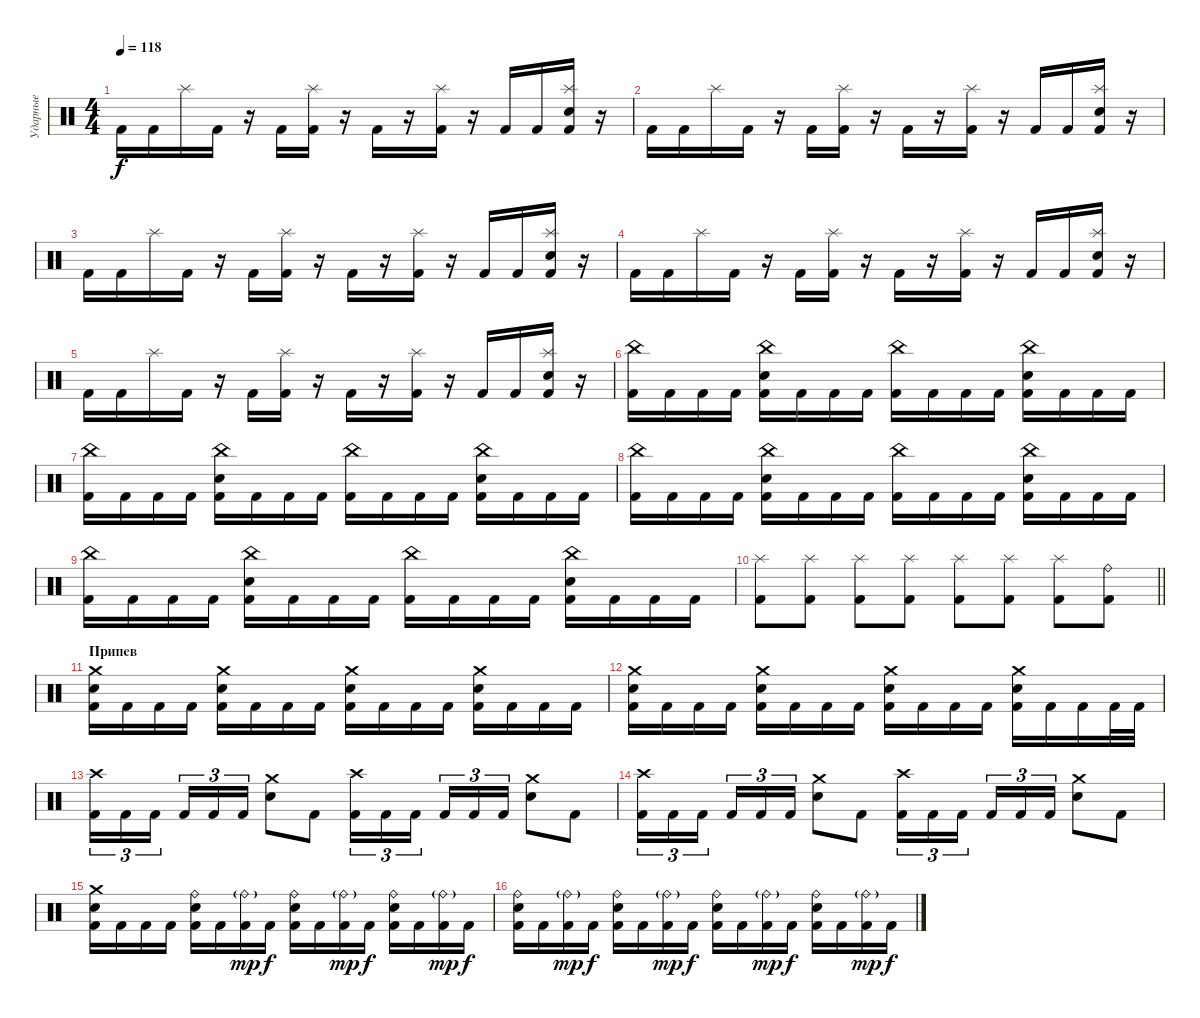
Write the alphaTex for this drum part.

\track ("Ударные" "Ударные") {instrument percussion}
\staff {score}
\articulation defaults
\ts (4 4)
\tempo 118
\clef neutral
\ks c "Kick (hit) 2".16{dy f} "Kick (hit) 2".16 "Splash (hit)".16 "Kick (hit) 2".16
r.16 "Kick (hit) 2".16 ("Splash (hit)" "Kick (hit) 2").16 r.16 "Kick (hit) 2".16 r.16 ("Splash (hit)" "Kick (hit) 2").16 r.16 "Kick (hit) 2".16 "Kick (hit) 2".16 ("Splash (hit)" "Electric Snare (hit)" "Kick (hit) 2").16 r.16 |
"Kick (hit) 2".16 "Kick (hit) 2".16 "Splash (hit)".16 "Kick (hit) 2".16 r.16 "Kick (hit) 2".16 ("Splash (hit)" "Kick (hit) 2").16 r.16 "Kick (hit) 2".16 r.16 ("Splash (hit)" "Kick (hit) 2").16 r.16 "Kick (hit) 2".16 "Kick (hit) 2".16 ("Splash (hit)" "Electric Snare (hit)" "Kick (hit) 2").16 r.16 |
"Kick (hit) 2".16 "Kick (hit) 2".16 "Splash (hit)".16 "Kick (hit) 2".16 r.16 "Kick (hit) 2".16 ("Splash (hit)" "Kick (hit) 2").16 r.16 "Kick (hit) 2".16 r.16 ("Splash (hit)" "Kick (hit) 2").16 r.16 "Kick (hit) 2".16 "Kick (hit) 2".16 ("Splash (hit)" "Electric Snare (hit)" "Kick (hit) 2").16 r.16 |
"Kick (hit) 2".16 "Kick (hit) 2".16 "Splash (hit)".16 "Kick (hit) 2".16 r.16 "Kick (hit) 2".16 ("Splash (hit)" "Kick (hit) 2").16 r.16 "Kick (hit) 2".16 r.16 ("Splash (hit)" "Kick (hit) 2").16 r.16 "Kick (hit) 2".16 "Kick (hit) 2".16 ("Splash (hit)" "Electric Snare (hit)" "Kick (hit) 2").16 r.16 |
"Kick (hit) 2".16 "Kick (hit) 2".16 "Splash (hit)".16 "Kick (hit) 2".16 r.16 "Kick (hit) 2".16 ("Splash (hit)" "Kick (hit) 2").16 r.16 "Kick (hit) 2".16 r.16 ("Splash (hit)" "Kick (hit) 2").16 r.16 "Kick (hit) 2".16 "Kick (hit) 2".16 ("Splash (hit)" "Electric Snare (hit)" "Kick (hit) 2").16 r.16 |
("China (hit)" "Kick (hit) 2").16 "Kick (hit) 2".16 "Kick (hit) 2".16 "Kick (hit) 2".16 ("China (hit)" "Electric Snare (hit)" "Kick (hit) 2").16 "Kick (hit) 2".16 "Kick (hit) 2".16 "Kick (hit) 2".16 ("China (hit)" "Kick (hit) 2").16 "Kick (hit) 2".16 "Kick (hit) 2".16 "Kick (hit) 2".16 ("China (hit)" "Electric Snare (hit)" "Kick (hit) 2").16 "Kick (hit) 2".16 "Kick (hit) 2".16 "Kick (hit) 2".16 |
("China (hit)" "Kick (hit) 2").16 "Kick (hit) 2".16 "Kick (hit) 2".16 "Kick (hit) 2".16 ("China (hit)" "Electric Snare (hit)" "Kick (hit) 2").16 "Kick (hit) 2".16 "Kick (hit) 2".16 "Kick (hit) 2".16 ("China (hit)" "Kick (hit) 2").16 "Kick (hit) 2".16 "Kick (hit) 2".16 "Kick (hit) 2".16 ("China (hit)" "Electric Snare (hit)" "Kick (hit) 2").16 "Kick (hit) 2".16 "Kick (hit) 2".16 "Kick (hit) 2".16 |
("China (hit)" "Kick (hit) 2").16 "Kick (hit) 2".16 "Kick (hit) 2".16 "Kick (hit) 2".16 ("China (hit)" "Electric Snare (hit)" "Kick (hit) 2").16 "Kick (hit) 2".16 "Kick (hit) 2".16 "Kick (hit) 2".16 ("China (hit)" "Kick (hit) 2").16 "Kick (hit) 2".16 "Kick (hit) 2".16 "Kick (hit) 2".16 ("China (hit)" "Electric Snare (hit)" "Kick (hit) 2").16 "Kick (hit) 2".16 "Kick (hit) 2".16 "Kick (hit) 2".16 |
("China (hit)" "Kick (hit) 2").16 "Kick (hit) 2".16 "Kick (hit) 2".16 "Kick (hit) 2".16 ("China (hit)" "Electric Snare (hit)" "Kick (hit) 2").16 "Kick (hit) 2".16 "Kick (hit) 2".16 "Kick (hit) 2".16 ("China (hit)" "Kick (hit) 2").16 "Kick (hit) 2".16 "Kick (hit) 2".16 "Kick (hit) 2".16 ("China (hit)" "Electric Snare (hit)" "Kick (hit) 2").16 "Kick (hit) 2".16 "Kick (hit) 2".16 "Kick (hit) 2".16 |
\barLineRight lightlight
("Splash (hit)" "Kick (hit) 2").8 ("Splash (hit)" "Kick (hit) 2").8 ("Splash (hit)" "Kick (hit) 2").8 ("Splash (hit)" "Kick (hit) 2").8 ("Splash (hit)" "Kick (hit) 2").8 ("Splash (hit)" "Kick (hit) 2").8 ("Splash (hit)" "Kick (hit) 2").8 ("Ride (bell)" "Kick (hit) 2").8 |
\section ("" "Припев")
("Crash medium (hit)" "Electric Snare (hit)" "Kick (hit) 2").16 "Kick (hit) 2".16 "Kick (hit) 2".16 "Kick (hit) 2".16 ("Crash medium (hit)" "Electric Snare (hit)" "Kick (hit) 2").16 "Kick (hit) 2".16 "Kick (hit) 2".16 "Kick (hit) 2".16 ("Crash medium (hit)" "Electric Snare (hit)" "Kick (hit) 2").16 "Kick (hit) 2".16 "Kick (hit) 2".16 "Kick (hit) 2".16 ("Crash medium (hit)" "Electric Snare (hit)" "Kick (hit) 2").16 "Kick (hit) 2".16 "Kick (hit) 2".16 "Kick (hit) 2".16 |
("Crash medium (hit)" "Electric Snare (hit)" "Kick (hit) 2").16 "Kick (hit) 2".16 "Kick (hit) 2".16 "Kick (hit) 2".16 ("Crash medium (hit)" "Electric Snare (hit)" "Kick (hit) 2").16 "Kick (hit) 2".16 "Kick (hit) 2".16 "Kick (hit) 2".16 ("Crash medium (hit)" "Electric Snare (hit)" "Kick (hit) 2").16 "Kick (hit) 2".16 "Kick (hit) 2".16 "Kick (hit) 2".16 ("Crash medium (hit)" "Electric Snare (hit)" "Kick (hit) 2").16 "Kick (hit) 2".16 "Kick (hit) 2".16 "Kick (hit) 2".32 "Kick (hit) 2".32 |
("Crash high (hit)" "Kick (hit) 2").16{tu (3 2)} "Kick (hit) 2".16{tu (3 2)} "Kick (hit) 2".16{tu (3 2)} "Kick (hit) 2".16{tu (3 2)} "Kick (hit) 2".16{tu (3 2)} "Kick (hit) 2".16{tu (3 2)} ("Crash medium (hit)" "Electric Snare (hit)").8 "Kick (hit) 2".8 ("Crash high (hit)" "Kick (hit) 2").16{tu (3 2)} "Kick (hit) 2".16{tu (3 2)} "Kick (hit) 2".16{tu (3 2)} "Kick (hit) 2".16{tu (3 2)} "Kick (hit) 2".16{tu (3 2)} "Kick (hit) 2".16{tu (3 2)} ("Crash medium (hit)" "Electric Snare (hit)").8 "Kick (hit) 2".8 |
("Crash high (hit)" "Kick (hit) 2").16{tu (3 2)} "Kick (hit) 2".16{tu (3 2)} "Kick (hit) 2".16{tu (3 2)} "Kick (hit) 2".16{tu (3 2)} "Kick (hit) 2".16{tu (3 2)} "Kick (hit) 2".16{tu (3 2)} ("Crash medium (hit)" "Electric Snare (hit)").8 "Kick (hit) 2".8 ("Crash high (hit)" "Kick (hit) 2").16{tu (3 2)} "Kick (hit) 2".16{tu (3 2)} "Kick (hit) 2".16{tu (3 2)} "Kick (hit) 2".16{tu (3 2)} "Kick (hit) 2".16{tu (3 2)} "Kick (hit) 2".16{tu (3 2)} ("Crash medium (hit)" "Electric Snare (hit)").8 "Kick (hit) 2".8 |
("Crash medium (hit)" "Electric Snare (hit)" "Kick (hit) 2").16 "Kick (hit) 2".16 "Kick (hit) 2".16 "Kick (hit) 2".16 ("Ride (bell)" "Electric Snare (hit)" "Kick (hit) 2").16 "Kick (hit) 2".16 ("Ride (bell)"{g} "Kick (hit) 2").16{dy mp} "Kick (hit) 2".16{dy f} ("Ride (bell)" "Electric Snare (hit)" "Kick (hit) 2").16 "Kick (hit) 2".16 ("Ride (bell)"{g} "Kick (hit) 2").16{dy mp} "Kick (hit) 2".16{dy f} ("Ride (bell)" "Electric Snare (hit)" "Kick (hit) 2").16 "Kick (hit) 2".16 ("Ride (bell)"{g} "Kick (hit) 2").16{dy mp} "Kick (hit) 2".16{dy f} |
("Ride (bell)" "Electric Snare (hit)" "Kick (hit) 2").16 "Kick (hit) 2".16 ("Ride (bell)"{g} "Kick (hit) 2").16{dy mp} "Kick (hit) 2".16{dy f} ("Ride (bell)" "Electric Snare (hit)" "Kick (hit) 2").16 "Kick (hit) 2".16 ("Ride (bell)"{g} "Kick (hit) 2").16{dy mp} "Kick (hit) 2".16{dy f} ("Ride (bell)" "Electric Snare (hit)" "Kick (hit) 2").16 "Kick (hit) 2".16 ("Ride (bell)"{g} "Kick (hit) 2").16{dy mp} "Kick (hit) 2".16{dy f} ("Ride (bell)" "Electric Snare (hit)" "Kick (hit) 2").16 "Kick (hit) 2".16 ("Ride (bell)"{g} "Kick (hit) 2").16{dy mp} "Kick (hit) 2".16{dy f}
